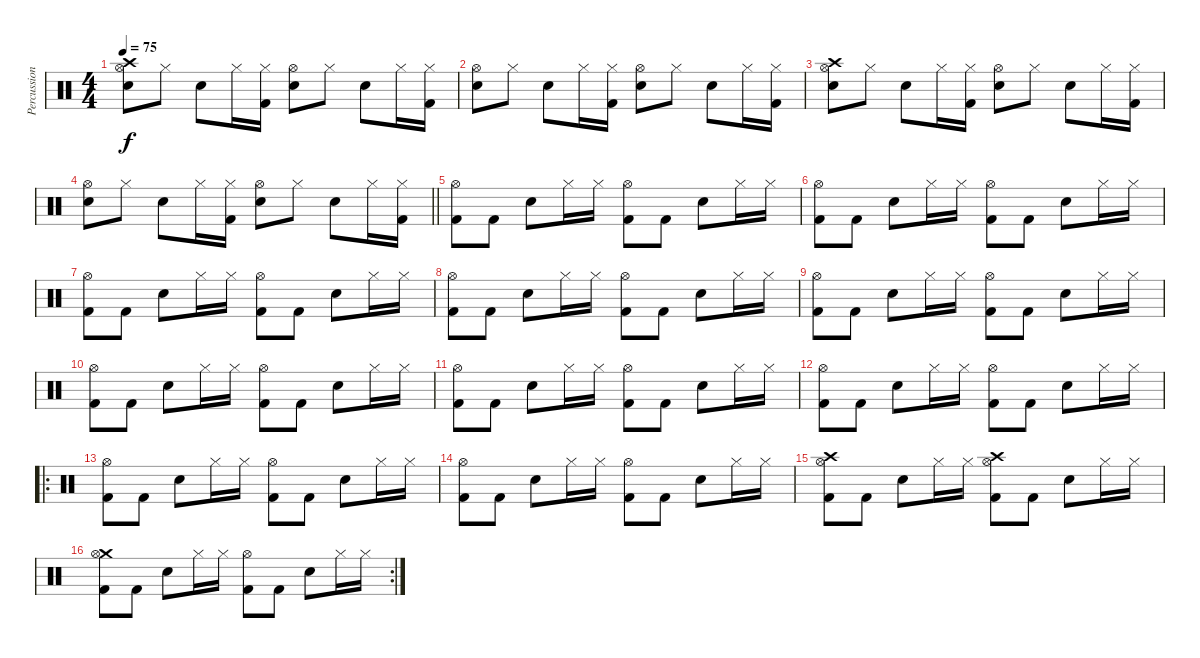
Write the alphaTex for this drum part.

\track ("Percussion" "Percussion") {instrument percussion}
\staff {score}
\articulation defaults
\ts (4 4)
\tempo 75
\clef neutral
\ks c
("Crash high (hit)" "Hi-Hat (open)" "Electric Snare (hit)").8{dy f} "Hi-Hat (closed)".8 "Electric Snare (hit)".8 "Hi-Hat (closed)".16 ("Hi-Hat (closed)" "Kick (hit) 2").16 ("Hi-Hat (open)" "Electric Snare (hit)").8 "Hi-Hat (closed)".8 "Electric Snare (hit)".8 "Hi-Hat (closed)".16 ("Hi-Hat (closed)" "Kick (hit) 2").16 |
("Hi-Hat (open)" "Electric Snare (hit)").8 "Hi-Hat (closed)".8 "Electric Snare (hit)".8 "Hi-Hat (closed)".16 ("Hi-Hat (closed)" "Kick (hit) 2").16 ("Hi-Hat (open)" "Electric Snare (hit)").8 "Hi-Hat (closed)".8 "Electric Snare (hit)".8 "Hi-Hat (closed)".16 ("Hi-Hat (closed)" "Kick (hit) 2").16 |
("Crash high (hit)" "Hi-Hat (open)" "Electric Snare (hit)").8 "Hi-Hat (closed)".8 "Electric Snare (hit)".8 "Hi-Hat (closed)".16 ("Hi-Hat (closed)" "Kick (hit) 2").16 ("Hi-Hat (open)" "Electric Snare (hit)").8 "Hi-Hat (closed)".8 "Electric Snare (hit)".8 "Hi-Hat (closed)".16 ("Hi-Hat (closed)" "Kick (hit) 2").16 |
\barLineRight lightlight
("Hi-Hat (open)" "Electric Snare (hit)").8 "Hi-Hat (closed)".8 "Electric Snare (hit)".8 "Hi-Hat (closed)".16 ("Hi-Hat (closed)" "Kick (hit) 2").16 ("Hi-Hat (open)" "Electric Snare (hit)").8 "Hi-Hat (closed)".8 "Electric Snare (hit)".8 "Hi-Hat (closed)".16 ("Hi-Hat (closed)" "Kick (hit) 2").16 |
("Hi-Hat (open)" "Kick (hit) 2").8 "Kick (hit) 2".8 "Electric Snare (hit)".8 "Hi-Hat (closed)".16 "Hi-Hat (closed)".16 ("Hi-Hat (open)" "Kick (hit) 2").8 "Kick (hit) 2".8 "Electric Snare (hit)".8 "Hi-Hat (closed)".16 "Hi-Hat (closed)".16 |
("Hi-Hat (open)" "Kick (hit) 2").8 "Kick (hit) 2".8 "Electric Snare (hit)".8 "Hi-Hat (closed)".16 "Hi-Hat (closed)".16 ("Hi-Hat (open)" "Kick (hit) 2").8 "Kick (hit) 2".8 "Electric Snare (hit)".8 "Hi-Hat (closed)".16 "Hi-Hat (closed)".16 |
("Hi-Hat (open)" "Kick (hit) 2").8 "Kick (hit) 2".8 "Electric Snare (hit)".8 "Hi-Hat (closed)".16 "Hi-Hat (closed)".16 ("Hi-Hat (open)" "Kick (hit) 2").8 "Kick (hit) 2".8 "Electric Snare (hit)".8 "Hi-Hat (closed)".16 "Hi-Hat (closed)".16 |
("Hi-Hat (open)" "Kick (hit) 2").8 "Kick (hit) 2".8 "Electric Snare (hit)".8 "Hi-Hat (closed)".16 "Hi-Hat (closed)".16 ("Hi-Hat (open)" "Kick (hit) 2").8 "Kick (hit) 2".8 "Electric Snare (hit)".8 "Hi-Hat (closed)".16 "Hi-Hat (closed)".16 |
("Hi-Hat (open)" "Kick (hit) 2").8 "Kick (hit) 2".8 "Electric Snare (hit)".8 "Hi-Hat (closed)".16 "Hi-Hat (closed)".16 ("Hi-Hat (open)" "Kick (hit) 2").8 "Kick (hit) 2".8 "Electric Snare (hit)".8 "Hi-Hat (closed)".16 "Hi-Hat (closed)".16 |
("Hi-Hat (open)" "Kick (hit) 2").8 "Kick (hit) 2".8 "Electric Snare (hit)".8 "Hi-Hat (closed)".16 "Hi-Hat (closed)".16 ("Hi-Hat (open)" "Kick (hit) 2").8 "Kick (hit) 2".8 "Electric Snare (hit)".8 "Hi-Hat (closed)".16 "Hi-Hat (closed)".16 |
("Hi-Hat (open)" "Kick (hit) 2").8 "Kick (hit) 2".8 "Electric Snare (hit)".8 "Hi-Hat (closed)".16 "Hi-Hat (closed)".16 ("Hi-Hat (open)" "Kick (hit) 2").8 "Kick (hit) 2".8 "Electric Snare (hit)".8 "Hi-Hat (closed)".16 "Hi-Hat (closed)".16 |
("Hi-Hat (open)" "Kick (hit) 2").8 "Kick (hit) 2".8 "Electric Snare (hit)".8 "Hi-Hat (closed)".16 "Hi-Hat (closed)".16 ("Hi-Hat (open)" "Kick (hit) 2").8 "Kick (hit) 2".8 "Electric Snare (hit)".8 "Hi-Hat (closed)".16 "Hi-Hat (closed)".16 |
\ro
("Hi-Hat (open)" "Kick (hit) 2").8 "Kick (hit) 2".8 "Electric Snare (hit)".8 "Hi-Hat (closed)".16 "Hi-Hat (closed)".16 ("Hi-Hat (open)" "Kick (hit) 2").8 "Kick (hit) 2".8 "Electric Snare (hit)".8 "Hi-Hat (closed)".16 "Hi-Hat (closed)".16 |
("Hi-Hat (open)" "Kick (hit) 2").8 "Kick (hit) 2".8 "Electric Snare (hit)".8 "Hi-Hat (closed)".16 "Hi-Hat (closed)".16 ("Hi-Hat (open)" "Kick (hit) 2").8 "Kick (hit) 2".8 "Electric Snare (hit)".8 "Hi-Hat (closed)".16 "Hi-Hat (closed)".16 |
("Crash high (hit)" "Hi-Hat (open)" "Kick (hit) 2").8 "Kick (hit) 2".8 "Electric Snare (hit)".8 "Hi-Hat (closed)".16 "Hi-Hat (closed)".16 ("Crash high (hit)" "Hi-Hat (open)" "Kick (hit) 2").8 "Kick (hit) 2".8 "Electric Snare (hit)".8 "Hi-Hat (closed)".16 "Hi-Hat (closed)".16 |
\rc 2
("Crash medium (hit)" "Hi-Hat (open)" "Kick (hit) 2").8 "Kick (hit) 2".8 "Electric Snare (hit)".8 "Hi-Hat (closed)".16 "Hi-Hat (closed)".16 ("Hi-Hat (open)" "Kick (hit) 2").8 "Kick (hit) 2".8 "Electric Snare (hit)".8 "Hi-Hat (closed)".16 "Hi-Hat (closed)".16
